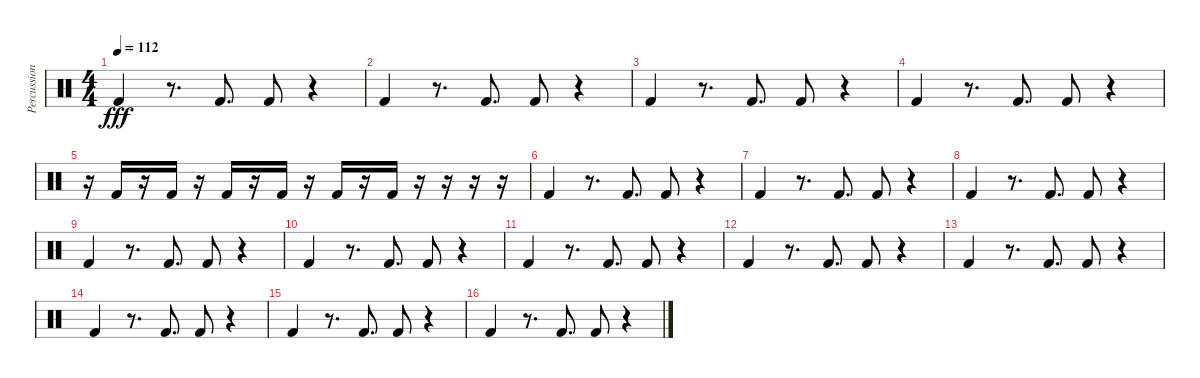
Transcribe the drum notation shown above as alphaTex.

\track ("Percussion" "Percussion") {instrument percussion}
\staff {score}
\articulation defaults
\ts (4 4)
\tempo 112
\clef neutral
\ks c "Kick (hit) 2".4{dy fff}
r.8{d} "Kick (hit) 2".8{d} "Kick (hit) 2".8 r.4 |
"Kick (hit) 2".4 r.8{d} "Kick (hit) 2".8{d} "Kick (hit) 2".8 r.4 |
"Kick (hit) 2".4 r.8{d} "Kick (hit) 2".8{d} "Kick (hit) 2".8 r.4 |
"Kick (hit) 2".4 r.8{d} "Kick (hit) 2".8{d} "Kick (hit) 2".8 r.4 |
r.16 "Kick (hit) 2".16 r.16 "Kick (hit) 2".16 r.16 "Kick (hit) 2".16 r.16 "Kick (hit) 2".16 r.16 "Kick (hit) 2".16 r.16 "Kick (hit) 2".16 r.16 r.16 r.16 r.16 |
"Kick (hit) 2".4 r.8{d} "Kick (hit) 2".8{d} "Kick (hit) 2".8 r.4 |
"Kick (hit) 2".4 r.8{d} "Kick (hit) 2".8{d} "Kick (hit) 2".8 r.4 |
"Kick (hit) 2".4 r.8{d} "Kick (hit) 2".8{d} "Kick (hit) 2".8 r.4 |
"Kick (hit) 2".4 r.8{d} "Kick (hit) 2".8{d} "Kick (hit) 2".8 r.4 |
"Kick (hit) 2".4 r.8{d} "Kick (hit) 2".8{d} "Kick (hit) 2".8 r.4 |
"Kick (hit) 2".4 r.8{d} "Kick (hit) 2".8{d} "Kick (hit) 2".8 r.4 |
"Kick (hit) 2".4 r.8{d} "Kick (hit) 2".8{d} "Kick (hit) 2".8 r.4 |
"Kick (hit) 2".4 r.8{d} "Kick (hit) 2".8{d} "Kick (hit) 2".8 r.4 |
"Kick (hit) 2".4 r.8{d} "Kick (hit) 2".8{d} "Kick (hit) 2".8 r.4 |
"Kick (hit) 2".4 r.8{d} "Kick (hit) 2".8{d} "Kick (hit) 2".8 r.4 |
"Kick (hit) 2".4 r.8{d} "Kick (hit) 2".8{d} "Kick (hit) 2".8 r.4
